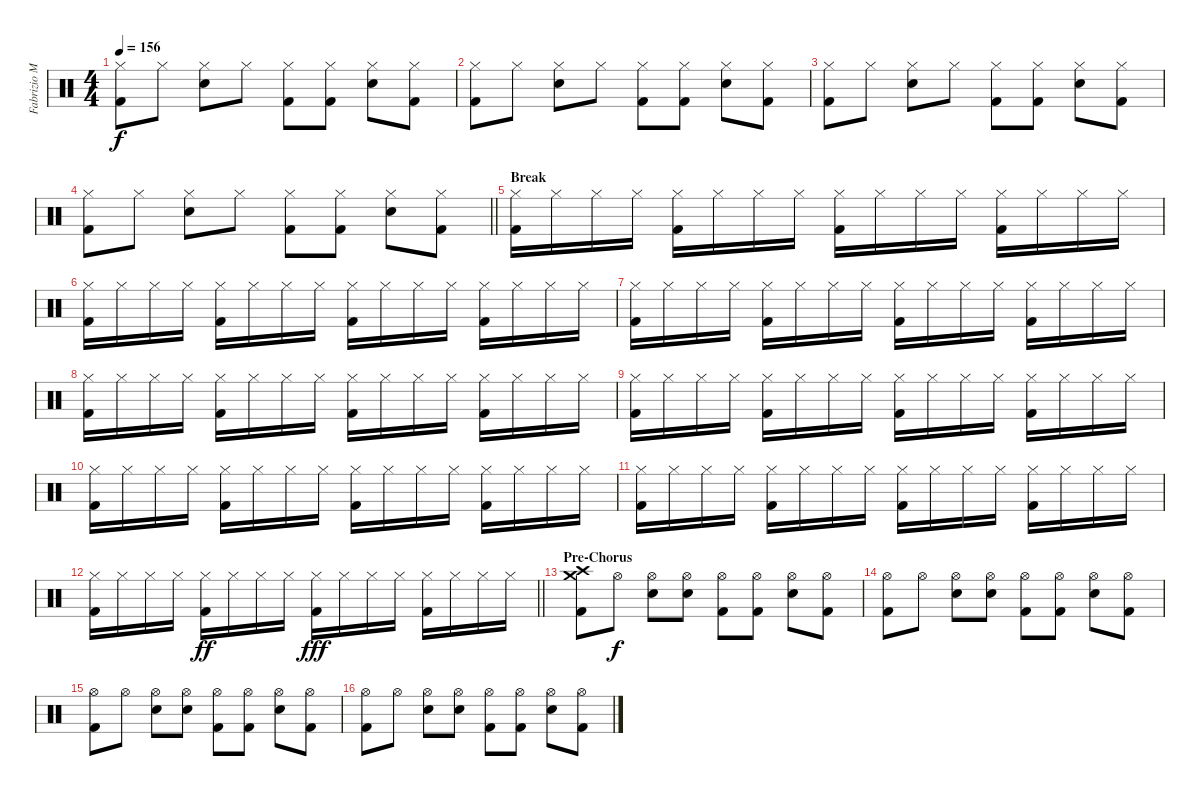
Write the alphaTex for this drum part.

\track ("Fabrizio Moretti" "Fabrizio M") {instrument percussion}
\staff {score}
\articulation defaults
\ts (4 4)
\tempo 156
\clef neutral
\ks c
("Hi-Hat (closed)" "Kick (hit) 2").8{dy f} "Hi-Hat (closed)".8 ("Hi-Hat (closed)" "Snare (hit) 2").8 "Hi-Hat (closed)".8 ("Hi-Hat (closed)" "Kick (hit) 2").8 ("Hi-Hat (closed)" "Kick (hit) 2").8 ("Hi-Hat (closed)" "Snare (hit) 2").8 ("Hi-Hat (closed)" "Kick (hit) 2").8 |
("Hi-Hat (closed)" "Kick (hit) 2").8 "Hi-Hat (closed)".8 ("Hi-Hat (closed)" "Snare (hit) 2").8 "Hi-Hat (closed)".8 ("Hi-Hat (closed)" "Kick (hit) 2").8 ("Hi-Hat (closed)" "Kick (hit) 2").8 ("Hi-Hat (closed)" "Snare (hit) 2").8 ("Hi-Hat (closed)" "Kick (hit) 2").8 |
("Hi-Hat (closed)" "Kick (hit) 2").8 "Hi-Hat (closed)".8 ("Hi-Hat (closed)" "Snare (hit) 2").8 "Hi-Hat (closed)".8 ("Hi-Hat (closed)" "Kick (hit) 2").8 ("Hi-Hat (closed)" "Kick (hit) 2").8 ("Hi-Hat (closed)" "Snare (hit) 2").8 ("Hi-Hat (closed)" "Kick (hit) 2").8 |
\barLineRight lightlight
("Hi-Hat (closed)" "Kick (hit) 2").8 "Hi-Hat (closed)".8 ("Hi-Hat (closed)" "Snare (hit) 2").8 "Hi-Hat (closed)".8 ("Hi-Hat (closed)" "Kick (hit) 2").8 ("Hi-Hat (closed)" "Kick (hit) 2").8 ("Hi-Hat (closed)" "Snare (hit) 2").8 ("Hi-Hat (closed)" "Kick (hit) 2").8 |
\section ("" "Break")
("Hi-Hat (closed)" "Kick (hit) 2").16 "Hi-Hat (closed)".16 "Hi-Hat (closed)".16 "Hi-Hat (closed)".16 ("Hi-Hat (closed)" "Kick (hit) 2").16 "Hi-Hat (closed)".16 "Hi-Hat (closed)".16 "Hi-Hat (closed)".16 ("Hi-Hat (closed)" "Kick (hit) 2").16 "Hi-Hat (closed)".16 "Hi-Hat (closed)".16 "Hi-Hat (closed)".16 ("Hi-Hat (closed)" "Kick (hit) 2").16 "Hi-Hat (closed)".16 "Hi-Hat (closed)".16 "Hi-Hat (closed)".16 |
("Hi-Hat (closed)" "Kick (hit) 2").16 "Hi-Hat (closed)".16 "Hi-Hat (closed)".16 "Hi-Hat (closed)".16 ("Hi-Hat (closed)" "Kick (hit) 2").16 "Hi-Hat (closed)".16 "Hi-Hat (closed)".16 "Hi-Hat (closed)".16 ("Hi-Hat (closed)" "Kick (hit) 2").16 "Hi-Hat (closed)".16 "Hi-Hat (closed)".16 "Hi-Hat (closed)".16 ("Hi-Hat (closed)" "Kick (hit) 2").16 "Hi-Hat (closed)".16 "Hi-Hat (closed)".16 "Hi-Hat (closed)".16 |
("Hi-Hat (closed)" "Kick (hit) 2").16 "Hi-Hat (closed)".16 "Hi-Hat (closed)".16 "Hi-Hat (closed)".16 ("Hi-Hat (closed)" "Kick (hit) 2").16 "Hi-Hat (closed)".16 "Hi-Hat (closed)".16 "Hi-Hat (closed)".16 ("Hi-Hat (closed)" "Kick (hit) 2").16 "Hi-Hat (closed)".16 "Hi-Hat (closed)".16 "Hi-Hat (closed)".16 ("Hi-Hat (closed)" "Kick (hit) 2").16 "Hi-Hat (closed)".16 "Hi-Hat (closed)".16 "Hi-Hat (closed)".16 |
("Hi-Hat (closed)" "Kick (hit) 2").16 "Hi-Hat (closed)".16 "Hi-Hat (closed)".16 "Hi-Hat (closed)".16 ("Hi-Hat (closed)" "Kick (hit) 2").16 "Hi-Hat (closed)".16 "Hi-Hat (closed)".16 "Hi-Hat (closed)".16 ("Hi-Hat (closed)" "Kick (hit) 2").16 "Hi-Hat (closed)".16 "Hi-Hat (closed)".16 "Hi-Hat (closed)".16 ("Hi-Hat (closed)" "Kick (hit) 2").16 "Hi-Hat (closed)".16 "Hi-Hat (closed)".16 "Hi-Hat (closed)".16 |
("Hi-Hat (closed)" "Kick (hit) 2").16 "Hi-Hat (closed)".16 "Hi-Hat (closed)".16 "Hi-Hat (closed)".16 ("Hi-Hat (closed)" "Kick (hit) 2").16 "Hi-Hat (closed)".16 "Hi-Hat (closed)".16 "Hi-Hat (closed)".16 ("Hi-Hat (closed)" "Kick (hit) 2").16 "Hi-Hat (closed)".16 "Hi-Hat (closed)".16 "Hi-Hat (closed)".16 ("Hi-Hat (closed)" "Kick (hit) 2").16 "Hi-Hat (closed)".16 "Hi-Hat (closed)".16 "Hi-Hat (closed)".16 |
("Hi-Hat (closed)" "Kick (hit) 2").16 "Hi-Hat (closed)".16 "Hi-Hat (closed)".16 "Hi-Hat (closed)".16 ("Hi-Hat (closed)" "Kick (hit) 2").16 "Hi-Hat (closed)".16 "Hi-Hat (closed)".16 "Hi-Hat (closed)".16 ("Hi-Hat (closed)" "Kick (hit) 2").16 "Hi-Hat (closed)".16 "Hi-Hat (closed)".16 "Hi-Hat (closed)".16 ("Hi-Hat (closed)" "Kick (hit) 2").16 "Hi-Hat (closed)".16 "Hi-Hat (closed)".16 "Hi-Hat (closed)".16 |
("Hi-Hat (closed)" "Kick (hit) 2").16 "Hi-Hat (closed)".16 "Hi-Hat (closed)".16 "Hi-Hat (closed)".16 ("Hi-Hat (closed)" "Kick (hit) 2").16 "Hi-Hat (closed)".16 "Hi-Hat (closed)".16 "Hi-Hat (closed)".16 ("Hi-Hat (closed)" "Kick (hit) 2").16 "Hi-Hat (closed)".16 "Hi-Hat (closed)".16 "Hi-Hat (closed)".16 ("Hi-Hat (closed)" "Kick (hit) 2").16 "Hi-Hat (closed)".16 "Hi-Hat (closed)".16 "Hi-Hat (closed)".16 |
\barLineRight lightlight
("Hi-Hat (closed)" "Kick (hit) 2").16 "Hi-Hat (closed)".16 "Hi-Hat (closed)".16 "Hi-Hat (closed)".16 ("Hi-Hat (closed)" "Kick (hit) 2").16{dy ff} "Hi-Hat (closed)".16 "Hi-Hat (closed)".16 "Hi-Hat (closed)".16 ("Hi-Hat (closed)" "Kick (hit) 2").16{dy fff} "Hi-Hat (closed)".16 "Hi-Hat (closed)".16 "Hi-Hat (closed)".16 ("Hi-Hat (closed)" "Kick (hit) 2").16 "Hi-Hat (closed)".16 "Hi-Hat (closed)".16 "Hi-Hat (closed)".16 |
\section ("" "Pre-Chorus")
("Crash high (hit)" "Crash medium (hit)" "Kick (hit) 2").8 "Hi-Hat (open)".8{dy f} ("Hi-Hat (open)" "Snare (hit) 2").8 ("Hi-Hat (open)" "Snare (hit) 2").8 ("Hi-Hat (open)" "Kick (hit) 2").8 ("Hi-Hat (open)" "Kick (hit) 2").8 ("Hi-Hat (open)" "Snare (hit) 2").8 ("Hi-Hat (open)" "Kick (hit) 2").8 |
("Hi-Hat (open)" "Kick (hit) 2").8 "Hi-Hat (open)".8 ("Hi-Hat (open)" "Snare (hit) 2").8 ("Hi-Hat (open)" "Snare (hit) 2").8 ("Hi-Hat (open)" "Kick (hit) 2").8 ("Hi-Hat (open)" "Kick (hit) 2").8 ("Hi-Hat (open)" "Snare (hit) 2").8 ("Hi-Hat (open)" "Kick (hit) 2").8 |
("Hi-Hat (open)" "Kick (hit) 2").8 "Hi-Hat (open)".8 ("Hi-Hat (open)" "Snare (hit) 2").8 ("Hi-Hat (open)" "Snare (hit) 2").8 ("Hi-Hat (open)" "Kick (hit) 2").8 ("Hi-Hat (open)" "Kick (hit) 2").8 ("Hi-Hat (open)" "Snare (hit) 2").8 ("Hi-Hat (open)" "Kick (hit) 2").8 |
("Hi-Hat (open)" "Kick (hit) 2").8 "Hi-Hat (open)".8 ("Hi-Hat (open)" "Snare (hit) 2").8 ("Hi-Hat (open)" "Snare (hit) 2").8 ("Hi-Hat (open)" "Kick (hit) 2").8 ("Hi-Hat (open)" "Kick (hit) 2").8 ("Hi-Hat (open)" "Snare (hit) 2").8 ("Hi-Hat (open)" "Kick (hit) 2").8
